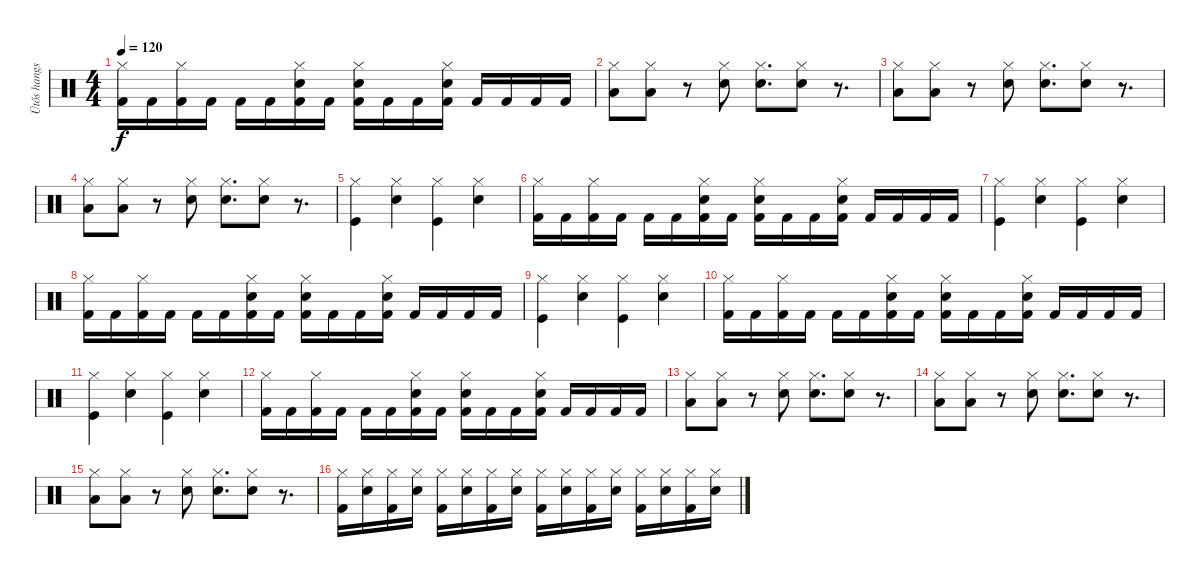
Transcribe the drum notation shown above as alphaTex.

\track ("Ütős hangszer" "Ütős hangs") {instrument percussion}
\staff {score}
\articulation defaults
\ts (4 4)
\tempo 120
\clef neutral
\ks c
("Hi-Hat (closed)" "Kick (hit) 2").16{dy f} "Kick (hit) 2".16 ("Hi-Hat (closed)" "Kick (hit) 2").16 "Kick (hit) 2".16 "Kick (hit) 2".16 "Kick (hit) 2".16 ("Snare (hit) 2" "Hi-Hat (closed)" "Kick (hit) 2").16 "Kick (hit) 2".16 ("Snare (hit) 2" "Hi-Hat (closed)" "Kick (hit) 2").16 "Kick (hit) 2".16 "Kick (hit) 2".16 ("Snare (hit) 2" "Hi-Hat (closed)" "Kick (hit) 2").16 "Kick (hit) 2".16 "Kick (hit) 2".16 "Kick (hit) 2".16 "Kick (hit) 2".16 |
("Low Floor Tom (hit)" "Hi-Hat (closed)").8 ("Hi-Hat (closed)" "Low Floor Tom (hit)").8 r.8 ("Hi-Hat (closed)" "Snare (hit) 2").8 ("Hi-Hat (closed)" "Snare (hit) 2").8{d} ("Hi-Hat (closed)" "Snare (hit) 2").8 r.8{d} |
("Low Floor Tom (hit)" "Hi-Hat (closed)").8 ("Hi-Hat (closed)" "Low Floor Tom (hit)").8 r.8 ("Hi-Hat (closed)" "Snare (hit) 2").8 ("Hi-Hat (closed)" "Snare (hit) 2").8{d} ("Hi-Hat (closed)" "Snare (hit) 2").8 r.8{d} |
("Low Floor Tom (hit)" "Hi-Hat (closed)").8 ("Hi-Hat (closed)" "Low Floor Tom (hit)").8 r.8 ("Hi-Hat (closed)" "Snare (hit) 2").8 ("Hi-Hat (closed)" "Snare (hit) 2").8{d} ("Hi-Hat (closed)" "Snare (hit) 2").8 r.8{d} |
("Hi-Hat (closed)" "Kick (hit)").4 ("Hi-Hat (closed)" "Snare (hit) 2").4 ("Hi-Hat (closed)" "Kick (hit)").4 ("Hi-Hat (closed)" "Snare (hit) 2").4 |
("Hi-Hat (closed)" "Kick (hit) 2").16 "Kick (hit) 2".16 ("Hi-Hat (closed)" "Kick (hit) 2").16 "Kick (hit) 2".16 "Kick (hit) 2".16 "Kick (hit) 2".16 ("Snare (hit) 2" "Hi-Hat (closed)" "Kick (hit) 2").16 "Kick (hit) 2".16 ("Snare (hit) 2" "Hi-Hat (closed)" "Kick (hit) 2").16 "Kick (hit) 2".16 "Kick (hit) 2".16 ("Snare (hit) 2" "Hi-Hat (closed)" "Kick (hit) 2").16 "Kick (hit) 2".16 "Kick (hit) 2".16 "Kick (hit) 2".16 "Kick (hit) 2".16 |
("Hi-Hat (closed)" "Kick (hit)").4 ("Hi-Hat (closed)" "Snare (hit) 2").4 ("Hi-Hat (closed)" "Kick (hit)").4 ("Hi-Hat (closed)" "Snare (hit) 2").4 |
("Hi-Hat (closed)" "Kick (hit) 2").16 "Kick (hit) 2".16 ("Hi-Hat (closed)" "Kick (hit) 2").16 "Kick (hit) 2".16 "Kick (hit) 2".16 "Kick (hit) 2".16 ("Snare (hit) 2" "Hi-Hat (closed)" "Kick (hit) 2").16 "Kick (hit) 2".16 ("Snare (hit) 2" "Hi-Hat (closed)" "Kick (hit) 2").16 "Kick (hit) 2".16 "Kick (hit) 2".16 ("Snare (hit) 2" "Hi-Hat (closed)" "Kick (hit) 2").16 "Kick (hit) 2".16 "Kick (hit) 2".16 "Kick (hit) 2".16 "Kick (hit) 2".16 |
("Hi-Hat (closed)" "Kick (hit)").4 ("Hi-Hat (closed)" "Snare (hit) 2").4 ("Hi-Hat (closed)" "Kick (hit)").4 ("Hi-Hat (closed)" "Snare (hit) 2").4 |
("Hi-Hat (closed)" "Kick (hit) 2").16 "Kick (hit) 2".16 ("Hi-Hat (closed)" "Kick (hit) 2").16 "Kick (hit) 2".16 "Kick (hit) 2".16 "Kick (hit) 2".16 ("Snare (hit) 2" "Hi-Hat (closed)" "Kick (hit) 2").16 "Kick (hit) 2".16 ("Snare (hit) 2" "Hi-Hat (closed)" "Kick (hit) 2").16 "Kick (hit) 2".16 "Kick (hit) 2".16 ("Snare (hit) 2" "Hi-Hat (closed)" "Kick (hit) 2").16 "Kick (hit) 2".16 "Kick (hit) 2".16 "Kick (hit) 2".16 "Kick (hit) 2".16 |
("Hi-Hat (closed)" "Kick (hit)").4 ("Hi-Hat (closed)" "Snare (hit) 2").4 ("Hi-Hat (closed)" "Kick (hit)").4 ("Hi-Hat (closed)" "Snare (hit) 2").4 |
("Hi-Hat (closed)" "Kick (hit) 2").16 "Kick (hit) 2".16 ("Hi-Hat (closed)" "Kick (hit) 2").16 "Kick (hit) 2".16 "Kick (hit) 2".16 "Kick (hit) 2".16 ("Snare (hit) 2" "Hi-Hat (closed)" "Kick (hit) 2").16 "Kick (hit) 2".16 ("Snare (hit) 2" "Hi-Hat (closed)" "Kick (hit) 2").16 "Kick (hit) 2".16 "Kick (hit) 2".16 ("Snare (hit) 2" "Hi-Hat (closed)" "Kick (hit) 2").16 "Kick (hit) 2".16 "Kick (hit) 2".16 "Kick (hit) 2".16 "Kick (hit) 2".16 |
("Low Floor Tom (hit)" "Hi-Hat (closed)").8 ("Hi-Hat (closed)" "Low Floor Tom (hit)").8 r.8 ("Hi-Hat (closed)" "Snare (hit) 2").8 ("Hi-Hat (closed)" "Snare (hit) 2").8{d} ("Hi-Hat (closed)" "Snare (hit) 2").8 r.8{d} |
("Low Floor Tom (hit)" "Hi-Hat (closed)").8 ("Hi-Hat (closed)" "Low Floor Tom (hit)").8 r.8 ("Hi-Hat (closed)" "Snare (hit) 2").8 ("Hi-Hat (closed)" "Snare (hit) 2").8{d} ("Hi-Hat (closed)" "Snare (hit) 2").8 r.8{d} |
("Low Floor Tom (hit)" "Hi-Hat (closed)").8 ("Hi-Hat (closed)" "Low Floor Tom (hit)").8 r.8 ("Hi-Hat (closed)" "Snare (hit) 2").8 ("Hi-Hat (closed)" "Snare (hit) 2").8{d} ("Hi-Hat (closed)" "Snare (hit) 2").8 r.8{d} |
("Hi-Hat (closed)" "Kick (hit) 2").16 ("Hi-Hat (closed)" "Snare (hit) 2").16 ("Hi-Hat (closed)" "Kick (hit) 2").16 ("Hi-Hat (closed)" "Snare (hit) 2").16 ("Hi-Hat (closed)" "Kick (hit) 2").16 ("Hi-Hat (closed)" "Snare (hit) 2").16 ("Hi-Hat (closed)" "Kick (hit) 2").16 ("Hi-Hat (closed)" "Snare (hit) 2").16 ("Hi-Hat (closed)" "Kick (hit) 2").16 ("Hi-Hat (closed)" "Snare (hit) 2").16 ("Hi-Hat (closed)" "Kick (hit) 2").16 ("Hi-Hat (closed)" "Snare (hit) 2").16 ("Hi-Hat (closed)" "Kick (hit) 2").16 ("Hi-Hat (closed)" "Snare (hit) 2").16 ("Hi-Hat (closed)" "Kick (hit) 2").16 ("Hi-Hat (closed)" "Snare (hit) 2").16
